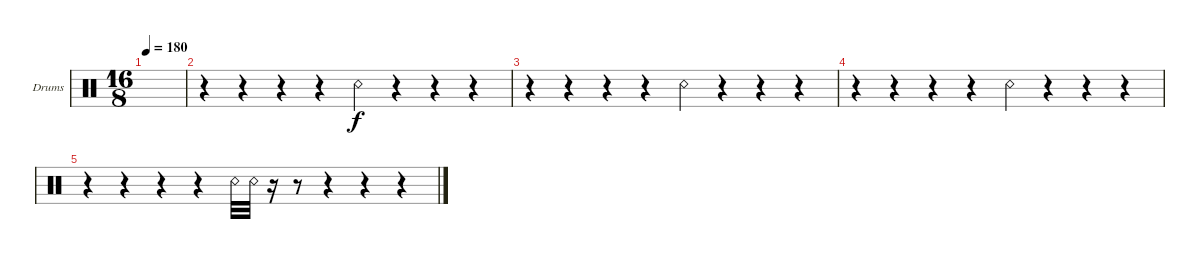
\defaultSystemsLayout 4
\bracketExtendMode groupsimilarinstruments
\firstSystemTrackNameOrientation horizontal
\otherSystemsTrackNameOrientation horizontal
\track ("Snare 2" "Drums") {instrument percussion}
\staff {score}
\articulation defaults
\ts (16 8)
\tempo 180
\clef neutral
\ks c
|
r.4 r.4 r.4 r.4 "Snare (rim shot)".4 r.4 r.4 r.4 |
r.4 r.4 r.4 r.4 "Snare (rim shot)".4 r.4 r.4 r.4 |
r.4 r.4 r.4 r.4 "Snare (rim shot)".4 r.4 r.4 r.4 |
r.4 r.4 r.4 r.4 "Snare (rim shot)".32 "Snare (rim shot)".32 r.16 r.8 r.4 r.4 r.4
